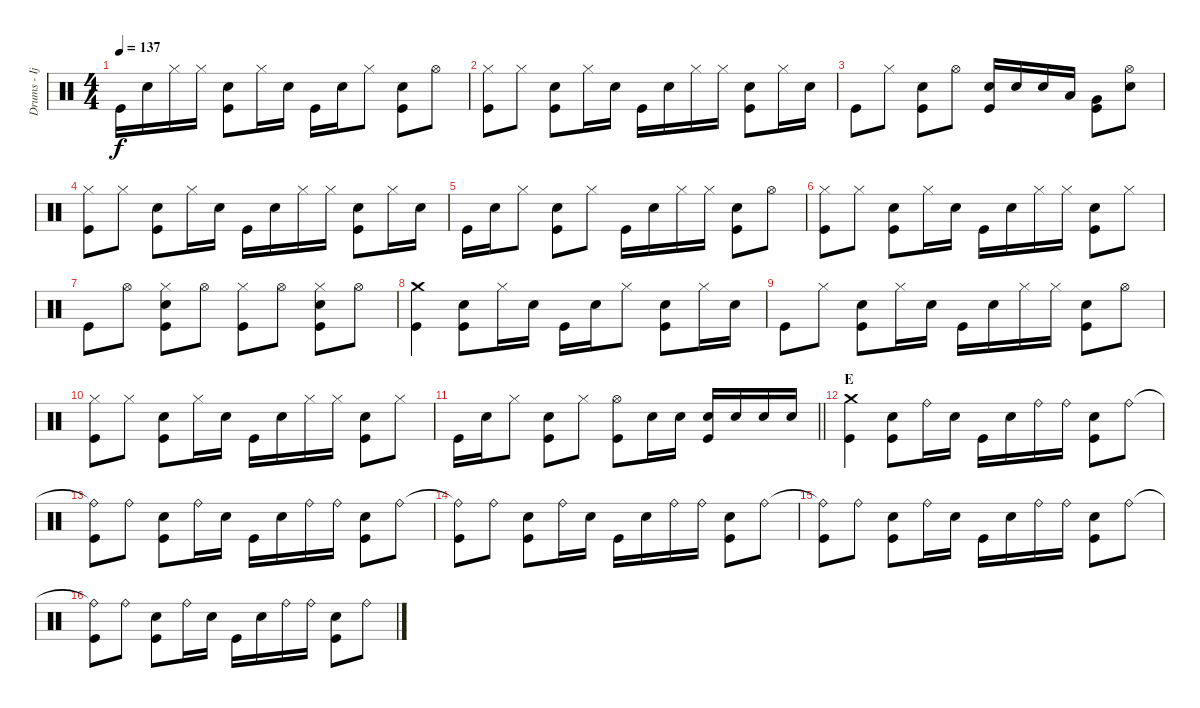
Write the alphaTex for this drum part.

\track ("Drums - Ijichi" "Drums - Ij") {instrument percussion}
\staff {score}
\articulation defaults
\ts (4 4)
\tempo 137
\clef neutral
\ks c "Kick (hit)".16{dy f} "Electric Snare (hit)".16 "Hi-Hat (closed)".16 "Hi-Hat (closed)".16
("Electric Snare (hit)" "Kick (hit)").8 "Hi-Hat (closed)".16 "Electric Snare (hit)".16 "Kick (hit)".16 "Electric Snare (hit)".16 "Hi-Hat (closed)".8 ("Electric Snare (hit)" "Kick (hit)").8 "Hi-Hat (open)".8 |
("Hi-Hat (closed)" "Kick (hit)").8 "Hi-Hat (closed)".8 ("Electric Snare (hit)" "Kick (hit)").8 "Hi-Hat (closed)".16 "Electric Snare (hit)".16 "Kick (hit)".16 "Electric Snare (hit)".16 "Hi-Hat (closed)".16 "Hi-Hat (closed)".16 ("Electric Snare (hit)" "Kick (hit)").8 "Hi-Hat (closed)".16 "Electric Snare (hit)".16 |
"Kick (hit)".8 "Hi-Hat (closed)".8 ("Electric Snare (hit)" "Kick (hit)").8 "Hi-Hat (open)".8 ("Electric Snare (hit)" "Kick (hit)").16 "Electric Snare (hit)".16 "Electric Snare (hit)".16 "Low Tom (hit)".16 ("Very Low Tom (hit)" "Kick (hit)").8 ("Hi-Hat (open)" "Electric Snare (hit)").8 |
("Hi-Hat (closed)" "Kick (hit)").8 "Hi-Hat (closed)".8 ("Electric Snare (hit)" "Kick (hit)").8 "Hi-Hat (closed)".16 "Electric Snare (hit)".16 "Kick (hit)".16 "Electric Snare (hit)".16 "Hi-Hat (closed)".16 "Hi-Hat (closed)".16 ("Electric Snare (hit)" "Kick (hit)").8 "Hi-Hat (closed)".16 "Electric Snare (hit)".16 |
"Kick (hit)".16 "Electric Snare (hit)".16 "Hi-Hat (closed)".8 ("Electric Snare (hit)" "Kick (hit)").8 "Hi-Hat (closed)".8 "Kick (hit)".16 "Electric Snare (hit)".16 "Hi-Hat (closed)".16 "Hi-Hat (closed)".16 ("Electric Snare (hit)" "Kick (hit)").8 "Hi-Hat (open)".8 |
("Hi-Hat (closed)" "Kick (hit)").8 "Hi-Hat (closed)".8 ("Electric Snare (hit)" "Kick (hit)").8 "Hi-Hat (closed)".16 "Electric Snare (hit)".16 "Kick (hit)".16 "Electric Snare (hit)".16 "Hi-Hat (closed)".16 "Hi-Hat (closed)".16 ("Electric Snare (hit)" "Kick (hit)").8 "Hi-Hat (closed)".8 |
"Kick (hit)".8 "Hi-Hat (open)".8 ("Hi-Hat (closed)" "Electric Snare (hit)" "Kick (hit)").8 "Hi-Hat (open)".8 ("Hi-Hat (closed)" "Kick (hit)").8 "Hi-Hat (open)".8 ("Hi-Hat (closed)" "Electric Snare (hit)" "Kick (hit)").8 "Hi-Hat (open)".8 |
("Crash medium (hit)" "Kick (hit)").4 ("Electric Snare (hit)" "Kick (hit)").8 "Hi-Hat (closed)".16 "Electric Snare (hit)".16 "Kick (hit)".16 "Electric Snare (hit)".16 "Hi-Hat (closed)".8 ("Electric Snare (hit)" "Kick (hit)").8 "Hi-Hat (closed)".16 "Electric Snare (hit)".16 |
"Kick (hit)".8 "Hi-Hat (closed)".8 ("Electric Snare (hit)" "Kick (hit)").8 "Hi-Hat (closed)".16 "Electric Snare (hit)".16 "Kick (hit)".16 "Electric Snare (hit)".16 "Hi-Hat (closed)".16 "Hi-Hat (closed)".16 ("Electric Snare (hit)" "Kick (hit)").8 "Hi-Hat (open)".8 |
("Hi-Hat (closed)" "Kick (hit)").8 "Hi-Hat (closed)".8 ("Electric Snare (hit)" "Kick (hit)").8 "Hi-Hat (closed)".16 "Electric Snare (hit)".16 "Kick (hit)".16 "Electric Snare (hit)".16 "Hi-Hat (closed)".16 "Hi-Hat (closed)".16 ("Electric Snare (hit)" "Kick (hit)").8 "Hi-Hat (closed)".8 |
\barLineRight lightlight "Kick (hit)".16 "Electric Snare (hit)".16 "Hi-Hat (closed)".8
("Electric Snare (hit)" "Kick (hit)").8 "Hi-Hat (closed)".8 ("Hi-Hat (open)" "Kick (hit)").8 "Electric Snare (hit)".16 "Electric Snare (hit)".16 ("Electric Snare (hit)" "Kick (hit)").16 "Electric Snare (hit)".16 "Electric Snare (hit)".16 "Electric Snare (hit)".16 |
\section ("" "E")
("Crash medium (hit)" "Kick (hit)").4 ("Electric Snare (hit)" "Kick (hit)").8 "Ride (bell)".16 "Electric Snare (hit)".16 "Kick (hit)".16 "Electric Snare (hit)".16 "Ride (bell)".16 "Ride (bell)".16 ("Electric Snare (hit)" "Kick (hit)").8 "Ride (bell)".8 |
("Ride (bell)"{t} "Kick (hit)").8 "Ride (bell)".8 ("Electric Snare (hit)" "Kick (hit)").8 "Ride (bell)".16 "Electric Snare (hit)".16 "Kick (hit)".16 "Electric Snare (hit)".16 "Ride (bell)".16 "Ride (bell)".16 ("Electric Snare (hit)" "Kick (hit)").8 "Ride (bell)".8 |
("Ride (bell)"{t} "Kick (hit)").8 "Ride (bell)".8 ("Electric Snare (hit)" "Kick (hit)").8 "Ride (bell)".16 "Electric Snare (hit)".16 "Kick (hit)".16 "Electric Snare (hit)".16 "Ride (bell)".16 "Ride (bell)".16 ("Electric Snare (hit)" "Kick (hit)").8 "Ride (bell)".8 |
("Ride (bell)"{t} "Kick (hit)").8 "Ride (bell)".8 ("Electric Snare (hit)" "Kick (hit)").8 "Ride (bell)".16 "Electric Snare (hit)".16 "Kick (hit)".16 "Electric Snare (hit)".16 "Ride (bell)".16 "Ride (bell)".16 ("Electric Snare (hit)" "Kick (hit)").8 "Ride (bell)".8 |
("Ride (bell)"{t} "Kick (hit)").8 "Ride (bell)".8 ("Electric Snare (hit)" "Kick (hit)").8 "Ride (bell)".16 "Electric Snare (hit)".16 "Kick (hit)".16 "Electric Snare (hit)".16 "Ride (bell)".16 "Ride (bell)".16 ("Electric Snare (hit)" "Kick (hit)").8 "Ride (bell)".8
